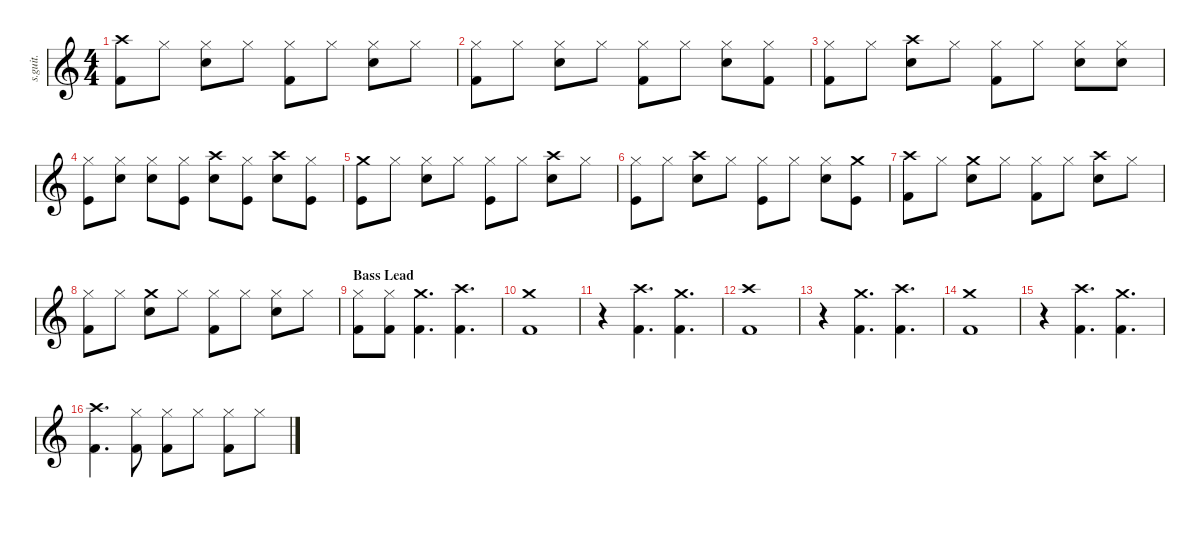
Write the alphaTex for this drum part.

\defaultSystemsLayout 4
\hideDynamics
\bracketExtendMode nobrackets
\track ("Drumkit" "s.guit.") {instrument percussion}
\staff {score}
\articulation defaults
\ts (4 4)
\tempo (130 hide)
\clef g2
\ks c
("Crash high (hit)" "Kick (hit) 2").8{lyrics (0 "") lyrics (1 "") lyrics (2 "") lyrics (3 "") lyrics (4 "") dy f} "Hi-Hat (closed)".8{lyrics (0 "") lyrics (1 "") lyrics (2 "") lyrics (3 "") lyrics (4 "")} ("Hi-Hat (closed)" "Snare (hit) 2").8{lyrics (0 "") lyrics (1 "") lyrics (2 "") lyrics (3 "") lyrics (4 "")} "Hi-Hat (closed)".8{lyrics (0 "") lyrics (1 "") lyrics (2 "") lyrics (3 "") lyrics (4 "")} ("Hi-Hat (closed)" "Kick (hit) 2").8{lyrics (0 "") lyrics (1 "") lyrics (2 "") lyrics (3 "") lyrics (4 "")} "Hi-Hat (closed)".8{lyrics (0 "") lyrics (1 "") lyrics (2 "") lyrics (3 "") lyrics (4 "")} ("Hi-Hat (closed)" "Snare (hit) 2").8{lyrics (0 "") lyrics (1 "") lyrics (2 "") lyrics (3 "") lyrics (4 "")} "Hi-Hat (closed)".8{lyrics (0 "") lyrics (1 "") lyrics (2 "") lyrics (3 "") lyrics (4 "")} |
("Hi-Hat (closed)" "Kick (hit) 2").8{lyrics (0 "") lyrics (1 "") lyrics (2 "") lyrics (3 "") lyrics (4 "")} "Hi-Hat (closed)".8{lyrics (0 "") lyrics (1 "") lyrics (2 "") lyrics (3 "") lyrics (4 "")} ("Hi-Hat (closed)" "Snare (hit) 2").8{lyrics (0 "") lyrics (1 "") lyrics (2 "") lyrics (3 "") lyrics (4 "")} "Hi-Hat (closed)".8{lyrics (0 "") lyrics (1 "") lyrics (2 "") lyrics (3 "") lyrics (4 "")} ("Hi-Hat (closed)" "Kick (hit) 2").8{lyrics (0 "") lyrics (1 "") lyrics (2 "") lyrics (3 "") lyrics (4 "")} "Hi-Hat (closed)".8{lyrics (0 "") lyrics (1 "") lyrics (2 "") lyrics (3 "") lyrics (4 "")} ("Hi-Hat (closed)" "Snare (hit) 2").8{lyrics (0 "") lyrics (1 "") lyrics (2 "") lyrics (3 "") lyrics (4 "")} ("Hi-Hat (closed)" "Kick (hit) 2").8{lyrics (0 "") lyrics (1 "") lyrics (2 "") lyrics (3 "") lyrics (4 "")} |
("Hi-Hat (closed)" "Kick (hit) 2").8{lyrics (0 "") lyrics (1 "") lyrics (2 "") lyrics (3 "") lyrics (4 "")} "Hi-Hat (closed)".8{lyrics (0 "") lyrics (1 "") lyrics (2 "") lyrics (3 "") lyrics (4 "")} ("Crash high (hit)" "Snare (hit) 2").8{lyrics (0 "") lyrics (1 "") lyrics (2 "") lyrics (3 "") lyrics (4 "")} "Hi-Hat (closed)".8{lyrics (0 "") lyrics (1 "") lyrics (2 "") lyrics (3 "") lyrics (4 "")} ("Hi-Hat (closed)" "Kick (hit) 2").8{lyrics (0 "") lyrics (1 "") lyrics (2 "") lyrics (3 "") lyrics (4 "")} "Hi-Hat (closed)".8{lyrics (0 "") lyrics (1 "") lyrics (2 "") lyrics (3 "") lyrics (4 "")} ("Hi-Hat (closed)" "Snare (hit) 2").8{lyrics (0 "") lyrics (1 "") lyrics (2 "") lyrics (3 "") lyrics (4 "")} ("Hi-Hat (closed)" "Snare (hit) 2").8{lyrics (0 "") lyrics (1 "") lyrics (2 "") lyrics (3 "") lyrics (4 "")} |
("Hi-Hat (closed)" "Kick (hit)").8{lyrics (0 "") lyrics (1 "") lyrics (2 "") lyrics (3 "") lyrics (4 "")} ("Hi-Hat (closed)" "Snare (hit) 2").8{lyrics (0 "") lyrics (1 "") lyrics (2 "") lyrics (3 "") lyrics (4 "")} ("Hi-Hat (closed)" "Snare (hit) 2").8{lyrics (0 "") lyrics (1 "") lyrics (2 "") lyrics (3 "") lyrics (4 "")} ("Hi-Hat (closed)" "Kick (hit)").8{lyrics (0 "") lyrics (1 "") lyrics (2 "") lyrics (3 "") lyrics (4 "")} ("Crash high (hit)" "Snare (hit) 2").8{lyrics (0 "") lyrics (1 "") lyrics (2 "") lyrics (3 "") lyrics (4 "")} ("Hi-Hat (closed)" "Kick (hit)").8{lyrics (0 "") lyrics (1 "") lyrics (2 "") lyrics (3 "") lyrics (4 "")} ("Crash high (hit)" "Snare (hit) 2").8{lyrics (0 "") lyrics (1 "") lyrics (2 "") lyrics (3 "") lyrics (4 "")} ("Hi-Hat (closed)" "Kick (hit)").8{lyrics (0 "") lyrics (1 "") lyrics (2 "") lyrics (3 "") lyrics (4 "")} |
("Crash medium (hit)" "Kick (hit)").8{lyrics (0 "") lyrics (1 "") lyrics (2 "") lyrics (3 "") lyrics (4 "")} "Hi-Hat (closed)".8{lyrics (0 "") lyrics (1 "") lyrics (2 "") lyrics (3 "") lyrics (4 "")} ("Hi-Hat (closed)" "Snare (hit) 2").8{lyrics (0 "") lyrics (1 "") lyrics (2 "") lyrics (3 "") lyrics (4 "")} "Hi-Hat (closed)".8{lyrics (0 "") lyrics (1 "") lyrics (2 "") lyrics (3 "") lyrics (4 "")} ("Hi-Hat (closed)" "Kick (hit)").8{lyrics (0 "") lyrics (1 "") lyrics (2 "") lyrics (3 "") lyrics (4 "")} "Hi-Hat (closed)".8{lyrics (0 "") lyrics (1 "") lyrics (2 "") lyrics (3 "") lyrics (4 "")} ("Crash high (hit)" "Snare (hit) 2").8{lyrics (0 "") lyrics (1 "") lyrics (2 "") lyrics (3 "") lyrics (4 "")} "Hi-Hat (closed)".8{lyrics (0 "") lyrics (1 "") lyrics (2 "") lyrics (3 "") lyrics (4 "")} |
("Hi-Hat (closed)" "Kick (hit)").8{lyrics (0 "") lyrics (1 "") lyrics (2 "") lyrics (3 "") lyrics (4 "")} "Hi-Hat (closed)".8{lyrics (0 "") lyrics (1 "") lyrics (2 "") lyrics (3 "") lyrics (4 "")} ("Crash high (hit)" "Snare (hit) 2").8{lyrics (0 "") lyrics (1 "") lyrics (2 "") lyrics (3 "") lyrics (4 "")} "Hi-Hat (closed)".8{lyrics (0 "") lyrics (1 "") lyrics (2 "") lyrics (3 "") lyrics (4 "")} ("Hi-Hat (closed)" "Kick (hit)").8{lyrics (0 "") lyrics (1 "") lyrics (2 "") lyrics (3 "") lyrics (4 "")} "Hi-Hat (closed)".8{lyrics (0 "") lyrics (1 "") lyrics (2 "") lyrics (3 "") lyrics (4 "")} ("Hi-Hat (closed)" "Snare (hit) 2").8{lyrics (0 "") lyrics (1 "") lyrics (2 "") lyrics (3 "") lyrics (4 "")} ("Crash medium (hit)" "Kick (hit)").8{lyrics (0 "") lyrics (1 "") lyrics (2 "") lyrics (3 "") lyrics (4 "")} |
("Crash high (hit)" "Kick (hit) 2").8{lyrics (0 "") lyrics (1 "") lyrics (2 "") lyrics (3 "") lyrics (4 "")} "Hi-Hat (closed)".8{lyrics (0 "") lyrics (1 "") lyrics (2 "") lyrics (3 "") lyrics (4 "")} ("Crash medium (hit)" "Snare (hit) 2").8{lyrics (0 "") lyrics (1 "") lyrics (2 "") lyrics (3 "") lyrics (4 "")} "Hi-Hat (closed)".8{lyrics (0 "") lyrics (1 "") lyrics (2 "") lyrics (3 "") lyrics (4 "")} ("Hi-Hat (closed)" "Kick (hit) 2").8{lyrics (0 "") lyrics (1 "") lyrics (2 "") lyrics (3 "") lyrics (4 "")} "Hi-Hat (closed)".8{lyrics (0 "") lyrics (1 "") lyrics (2 "") lyrics (3 "") lyrics (4 "")} ("Crash high (hit)" "Snare (hit) 2").8{lyrics (0 "") lyrics (1 "") lyrics (2 "") lyrics (3 "") lyrics (4 "")} "Hi-Hat (closed)".8{lyrics (0 "") lyrics (1 "") lyrics (2 "") lyrics (3 "") lyrics (4 "")} |
("Hi-Hat (closed)" "Kick (hit) 2").8{lyrics (0 "") lyrics (1 "") lyrics (2 "") lyrics (3 "") lyrics (4 "")} "Hi-Hat (closed)".8{lyrics (0 "") lyrics (1 "") lyrics (2 "") lyrics (3 "") lyrics (4 "")} ("Crash medium (hit)" "Snare (hit) 2").8{lyrics (0 "") lyrics (1 "") lyrics (2 "") lyrics (3 "") lyrics (4 "")} "Hi-Hat (closed)".8{lyrics (0 "") lyrics (1 "") lyrics (2 "") lyrics (3 "") lyrics (4 "")} ("Hi-Hat (closed)" "Kick (hit) 2").8{lyrics (0 "") lyrics (1 "") lyrics (2 "") lyrics (3 "") lyrics (4 "")} "Hi-Hat (closed)".8{lyrics (0 "") lyrics (1 "") lyrics (2 "") lyrics (3 "") lyrics (4 "")} ("Hi-Hat (closed)" "Snare (hit) 2").8{lyrics (0 "") lyrics (1 "") lyrics (2 "") lyrics (3 "") lyrics (4 "")} "Hi-Hat (closed)".8{lyrics (0 "") lyrics (1 "") lyrics (2 "") lyrics (3 "") lyrics (4 "")} |
\section ("" "Bass Lead")
("Hi-Hat (closed)" "Kick (hit) 2").8{lyrics (0 "") lyrics (1 "") lyrics (2 "") lyrics (3 "") lyrics (4 "")} ("Hi-Hat (closed)" "Kick (hit) 2").8{lyrics (0 "") lyrics (1 "") lyrics (2 "") lyrics (3 "") lyrics (4 "")} ("Crash medium (hit)" "Kick (hit) 2").4{d lyrics (0 "") lyrics (1 "") lyrics (2 "") lyrics (3 "") lyrics (4 "")} ("Crash high (hit)" "Kick (hit) 2").4{d lyrics (0 "") lyrics (1 "") lyrics (2 "") lyrics (3 "") lyrics (4 "")} |
("Crash medium (hit)" "Kick (hit) 2").1{lyrics (0 "") lyrics (1 "") lyrics (2 "") lyrics (3 "") lyrics (4 "")} |
r.4 ("Crash high (hit)" "Kick (hit) 2").4{d lyrics (0 "") lyrics (1 "") lyrics (2 "") lyrics (3 "") lyrics (4 "")} ("Crash medium (hit)" "Kick (hit) 2").4{d lyrics (0 "") lyrics (1 "") lyrics (2 "") lyrics (3 "") lyrics (4 "")} |
("Crash high (hit)" "Kick (hit) 2").1{lyrics (0 "") lyrics (1 "") lyrics (2 "") lyrics (3 "") lyrics (4 "")} |
r.4 ("Crash medium (hit)" "Kick (hit) 2").4{d lyrics (0 "") lyrics (1 "") lyrics (2 "") lyrics (3 "") lyrics (4 "")} ("Crash high (hit)" "Kick (hit) 2").4{d lyrics (0 "") lyrics (1 "") lyrics (2 "") lyrics (3 "") lyrics (4 "")} |
("Crash medium (hit)" "Kick (hit) 2").1{lyrics (0 "") lyrics (1 "") lyrics (2 "") lyrics (3 "") lyrics (4 "")} |
r.4 ("Crash high (hit)" "Kick (hit) 2").4{d lyrics (0 "") lyrics (1 "") lyrics (2 "") lyrics (3 "") lyrics (4 "")} ("Crash medium (hit)" "Kick (hit) 2").4{d lyrics (0 "") lyrics (1 "") lyrics (2 "") lyrics (3 "") lyrics (4 "")} |
("Crash high (hit)" "Kick (hit) 2").4{d lyrics (0 "") lyrics (1 "") lyrics (2 "") lyrics (3 "") lyrics (4 "")} ("Hi-Hat (closed)" "Kick (hit) 2").8{lyrics (0 "") lyrics (1 "") lyrics (2 "") lyrics (3 "") lyrics (4 "")} ("Hi-Hat (closed)" "Kick (hit) 2").8{lyrics (0 "") lyrics (1 "") lyrics (2 "") lyrics (3 "") lyrics (4 "")} "Hi-Hat (closed)".8{lyrics (0 "") lyrics (1 "") lyrics (2 "") lyrics (3 "") lyrics (4 "")} ("Hi-Hat (closed)" "Kick (hit) 2").8{lyrics (0 "") lyrics (1 "") lyrics (2 "") lyrics (3 "") lyrics (4 "")} "Hi-Hat (closed)".8{lyrics (0 "") lyrics (1 "") lyrics (2 "") lyrics (3 "") lyrics (4 "")}
